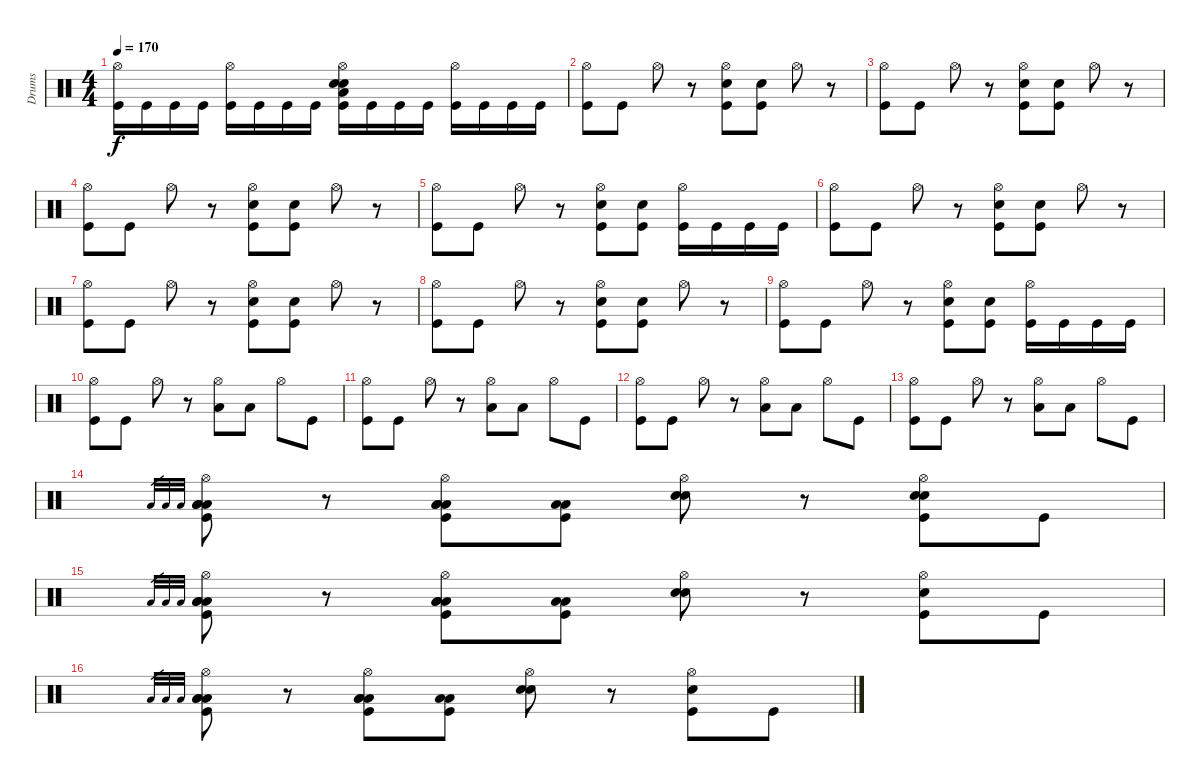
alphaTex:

\track ("Drums" "Drums") {instrument percussion}
\staff {score}
\articulation defaults
\ts (4 4)
\tempo 170
\clef neutral
\ks c
("Hi-Hat (open)" "Kick (hit)").16{dy f} "Kick (hit)".16 "Kick (hit)".16 "Kick (hit)".16 ("Hi-Hat (open)" "Kick (hit)").16 "Kick (hit)".16 "Kick (hit)".16 "Kick (hit)".16 ("Low Floor Tom (hit)" "Hi-Hat (open)" "Electric Snare (hit)" "Electric Snare (hit)" "Kick (hit)").16 "Kick (hit)".16 "Kick (hit)".16 "Kick (hit)".16 ("Hi-Hat (open)" "Kick (hit)").16 "Kick (hit)".16 "Kick (hit)".16 "Kick (hit)".16 |
("Hi-Hat (open)" "Kick (hit)").8 "Kick (hit)".8 "Hi-Hat (open)".8 r.8 ("Hi-Hat (open)" "Electric Snare (hit)" "Kick (hit)").8 ("Electric Snare (hit)" "Kick (hit)").8 "Hi-Hat (open)".8 r.8 |
("Hi-Hat (open)" "Kick (hit)").8 "Kick (hit)".8 "Hi-Hat (open)".8 r.8 ("Hi-Hat (open)" "Electric Snare (hit)" "Kick (hit)").8 ("Electric Snare (hit)" "Kick (hit)").8 "Hi-Hat (open)".8 r.8 |
("Hi-Hat (open)" "Kick (hit)").8 "Kick (hit)".8 "Hi-Hat (open)".8 r.8 ("Hi-Hat (open)" "Electric Snare (hit)" "Kick (hit)").8 ("Electric Snare (hit)" "Kick (hit)").8 "Hi-Hat (open)".8 r.8 |
("Hi-Hat (open)" "Kick (hit)").8 "Kick (hit)".8 "Hi-Hat (open)".8 r.8 ("Hi-Hat (open)" "Electric Snare (hit)" "Kick (hit)").8 ("Electric Snare (hit)" "Kick (hit)").8 ("Hi-Hat (open)" "Kick (hit)").16 "Kick (hit)".16 "Kick (hit)".16 "Kick (hit)".16 |
("Hi-Hat (open)" "Kick (hit)").8 "Kick (hit)".8 "Hi-Hat (open)".8 r.8 ("Hi-Hat (open)" "Electric Snare (hit)" "Kick (hit)").8 ("Electric Snare (hit)" "Kick (hit)").8 "Hi-Hat (open)".8 r.8 |
("Hi-Hat (open)" "Kick (hit)").8 "Kick (hit)".8 "Hi-Hat (open)".8 r.8 ("Hi-Hat (open)" "Electric Snare (hit)" "Kick (hit)").8 ("Electric Snare (hit)" "Kick (hit)").8 "Hi-Hat (open)".8 r.8 |
("Hi-Hat (open)" "Kick (hit)").8 "Kick (hit)".8 "Hi-Hat (open)".8 r.8 ("Hi-Hat (open)" "Electric Snare (hit)" "Kick (hit)").8 ("Electric Snare (hit)" "Kick (hit)").8 "Hi-Hat (open)".8 r.8 |
("Hi-Hat (open)" "Kick (hit)").8 "Kick (hit)".8 "Hi-Hat (open)".8 r.8 ("Hi-Hat (open)" "Electric Snare (hit)" "Kick (hit)").8 ("Electric Snare (hit)" "Kick (hit)").8 ("Hi-Hat (open)" "Kick (hit)").16 "Kick (hit)".16 "Kick (hit)".16 "Kick (hit)".16 |
("Hi-Hat (open)" "Kick (hit)").8 "Kick (hit)".8 "Hi-Hat (open)".8 r.8 ("Hi-Hat (open)" "Low Floor Tom (hit)").8 "Low Floor Tom (hit)".8 "Hi-Hat (open)".8 "Kick (hit)".8 |
("Hi-Hat (open)" "Kick (hit)").8 "Kick (hit)".8 "Hi-Hat (open)".8 r.8 ("Hi-Hat (open)" "Low Floor Tom (hit)").8 "Low Floor Tom (hit)".8 "Hi-Hat (open)".8 "Kick (hit)".8 |
("Hi-Hat (open)" "Kick (hit)").8 "Kick (hit)".8 "Hi-Hat (open)".8 r.8 ("Hi-Hat (open)" "Low Floor Tom (hit)").8 "Low Floor Tom (hit)".8 "Hi-Hat (open)".8 "Kick (hit)".8 |
("Hi-Hat (open)" "Kick (hit)").8 "Kick (hit)".8 "Hi-Hat (open)".8 r.8 ("Hi-Hat (open)" "Low Floor Tom (hit)").8 "Low Floor Tom (hit)".8 "Hi-Hat (open)".8 "Kick (hit)".8 |
"Low Floor Tom (hit)".32{gr} "Low Floor Tom (hit)".32{gr} "Low Floor Tom (hit)".32{gr} ("Hi-Hat (open)" "Low Floor Tom (hit)" "Low Floor Tom (hit)" "Low Floor Tom (hit)" "Kick (hit)").8 r.8 ("Hi-Hat (open)" "Low Floor Tom (hit)" "Low Floor Tom (hit)" "Low Floor Tom (hit)" "Kick (hit)").8 ("Low Floor Tom (hit)" "Low Floor Tom (hit)" "Kick (hit)").8 ("Hi-Hat (open)" "Electric Snare (hit)" "Electric Snare (hit)").8 r.8 ("Hi-Hat (open)" "Electric Snare (hit)" "Electric Snare (hit)" "Kick (hit)").8 "Kick (hit)".8 |
"Low Floor Tom (hit)".32{gr} "Low Floor Tom (hit)".32{gr} "Low Floor Tom (hit)".32{gr} ("Hi-Hat (open)" "Low Floor Tom (hit)" "Low Floor Tom (hit)" "Low Floor Tom (hit)" "Kick (hit)").8 r.8 ("Hi-Hat (open)" "Low Floor Tom (hit)" "Low Floor Tom (hit)" "Low Floor Tom (hit)" "Kick (hit)").8 ("Low Floor Tom (hit)" "Low Floor Tom (hit)" "Kick (hit)").8 ("Hi-Hat (open)" "Electric Snare (hit)" "Electric Snare (hit)").8 r.8 ("Hi-Hat (open)" "Electric Snare (hit)" "Kick (hit)").8 "Kick (hit)".8 |
"Low Floor Tom (hit)".32{gr} "Low Floor Tom (hit)".32{gr} "Low Floor Tom (hit)".32{gr} ("Hi-Hat (open)" "Low Floor Tom (hit)" "Low Floor Tom (hit)" "Low Floor Tom (hit)" "Kick (hit)").8 r.8 ("Hi-Hat (open)" "Low Floor Tom (hit)" "Low Floor Tom (hit)" "Low Floor Tom (hit)" "Kick (hit)").8 ("Low Floor Tom (hit)" "Low Floor Tom (hit)" "Kick (hit)").8 ("Hi-Hat (open)" "Electric Snare (hit)" "Electric Snare (hit)").8 r.8 ("Hi-Hat (open)" "Electric Snare (hit)" "Kick (hit)").8 "Kick (hit)".8
